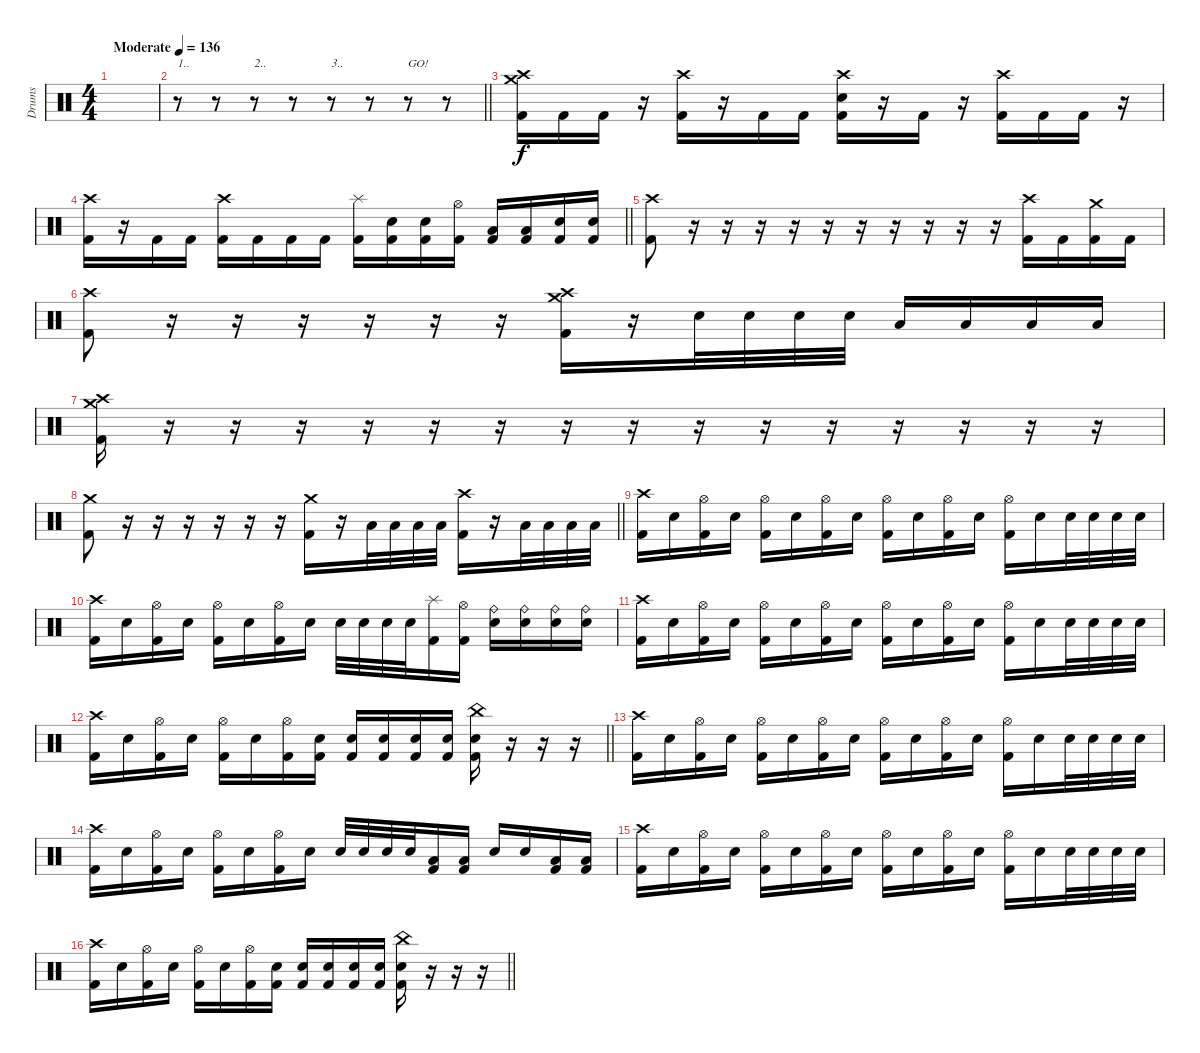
\track ("Drums" "Drums") {instrument percussion}
\staff {score}
\articulation defaults
\ts (4 4)
\tempo (136 "Moderate")
\clef neutral
\ks c
|
\barLineRight lightlight
r.8{txt "1.."} r.8 r.8{txt "2.."} r.8 r.8{txt "3.."} r.8 r.8{txt "GO!"} r.8 |
\section ("" "")
("Crash high (hit)" "Crash medium (hit)" "Kick (hit) 2").16 "Kick (hit) 2".16 "Kick (hit) 2".16 r.16 ("Crash high (hit)" "Kick (hit) 2").16 r.16 "Kick (hit) 2".16 "Kick (hit) 2".16 ("Crash high (hit)" "Electric Snare (hit)" "Kick (hit) 2").16 r.16 "Kick (hit) 2".16 r.16 ("Crash high (hit)" "Kick (hit) 2").16 "Kick (hit) 2".16 "Kick (hit) 2".16 r.16 |
\barLineRight lightlight
("Crash high (hit)" "Kick (hit) 2").16 r.16 "Kick (hit) 2".16 "Kick (hit) 2".16 ("Crash high (hit)" "Kick (hit) 2").16 "Kick (hit) 2".16 "Kick (hit) 2".16 "Kick (hit) 2".16 ("Splash (hit)" "Kick (hit) 2").16 ("Electric Snare (hit)" "Kick (hit) 2").16 ("Electric Snare (hit)" "Kick (hit) 2").16 ("Hi-Hat (open)" "Kick (hit) 2").16 ("Low Tom (hit)" "Kick (hit) 2").16 ("Low Floor Tom (hit)" "Kick (hit) 2").16 ("Electric Snare (hit)" "Kick (hit) 2").16 ("Electric Snare (hit)" "Kick (hit) 2").16 |
\section ("" "")
("Crash high (hit)" "Kick (hit) 2").8 r.16{volume 0} r.16 r.16 r.16 r.16 r.16 r.16 r.16 r.16 r.16 ("Crash high (hit)" "Kick (hit) 2").16{volume 12} "Kick (hit) 2".16 ("Crash medium (hit)" "Kick (hit) 2").16 "Kick (hit) 2".16 |
("Crash high (hit)" "Kick (hit) 2").8 r.16{volume 0} r.16 r.16 r.16 r.16 r.16 ("Crash high (hit)" "Crash medium (hit)" "Kick (hit) 2").16{volume 12} r.16 "Electric Snare (hit)".32 "Electric Snare (hit)".32 "Electric Snare (hit)".32 "Electric Snare (hit)".32 "Low Tom (hit)".16 "Low Tom (hit)".16 "Low Floor Tom (hit)".16 "Low Floor Tom (hit)".16 |
("Crash high (hit)" "Crash medium (hit)" "Kick (hit) 2").16 r.16 r.16 r.16 r.16 r.16 r.16 r.16 r.16 r.16 r.16 r.16 r.16 r.16 r.16 r.16 |
\barLineRight lightlight
("Crash medium (hit)" "Kick (hit) 2").8 r.16{volume 0} r.16 r.16 r.16 r.16 r.16 ("Crash medium (hit)" "Kick (hit) 2").16{volume 12} r.16 "Low Tom (hit)".32 "Low Tom (hit)".32 "Low Tom (hit)".32 "Low Tom (hit)".32 ("Crash high (hit)" "Kick (hit) 2").16 r.16 "Low Floor Tom (hit)".32 "Low Floor Tom (hit)".32 "Low Floor Tom (hit)".32 "Low Floor Tom (hit)".32 |
\section ("" "")
("Crash high (hit)" "Kick (hit) 2").16 "Electric Snare (hit)".16 ("Hi-Hat (open)" "Kick (hit) 2").16 "Electric Snare (hit)".16 ("Hi-Hat (open)" "Kick (hit) 2").16 "Electric Snare (hit)".16 ("Hi-Hat (open)" "Kick (hit) 2").16 "Electric Snare (hit)".16 ("Hi-Hat (open)" "Kick (hit) 2").16 "Electric Snare (hit)".16 ("Hi-Hat (open)" "Kick (hit) 2").16 "Electric Snare (hit)".16 ("Hi-Hat (open)" "Kick (hit) 2").16 "Electric Snare (hit)".16 "Electric Snare (hit)".32 "Electric Snare (hit)".32 "Electric Snare (hit)".32 "Electric Snare (hit)".32 |
("Crash high (hit)" "Kick (hit) 2").16 "Electric Snare (hit)".16 ("Hi-Hat (open)" "Kick (hit) 2").16 "Electric Snare (hit)".16 ("Hi-Hat (open)" "Kick (hit) 2").16 "Electric Snare (hit)".16 ("Hi-Hat (open)" "Kick (hit) 2").16 "Electric Snare (hit)".16 "Electric Snare (hit)".32 "Electric Snare (hit)".32 "Electric Snare (hit)".32 "Electric Snare (hit)".32 ("Splash (hit)" "Kick (hit) 2").16 ("Hi-Hat (open)" "Kick (hit) 2").16 ("Ride (bell)" "Electric Snare (hit)").16 ("Ride (bell)" "Electric Snare (hit)").16 ("Ride (bell)" "Electric Snare (hit)").16 ("Ride (bell)" "Electric Snare (hit)").16 |
("Crash high (hit)" "Kick (hit) 2").16 "Electric Snare (hit)".16 ("Hi-Hat (open)" "Kick (hit) 2").16 "Electric Snare (hit)".16 ("Hi-Hat (open)" "Kick (hit) 2").16 "Electric Snare (hit)".16 ("Hi-Hat (open)" "Kick (hit) 2").16 "Electric Snare (hit)".16 ("Hi-Hat (open)" "Kick (hit) 2").16 "Electric Snare (hit)".16 ("Hi-Hat (open)" "Kick (hit) 2").16 "Electric Snare (hit)".16 ("Hi-Hat (open)" "Kick (hit) 2").16 "Electric Snare (hit)".16 "Electric Snare (hit)".32 "Electric Snare (hit)".32 "Electric Snare (hit)".32 "Electric Snare (hit)".32 |
\barLineRight lightlight
("Crash high (hit)" "Kick (hit) 2").16 "Electric Snare (hit)".16 ("Hi-Hat (open)" "Kick (hit) 2").16 "Electric Snare (hit)".16 ("Hi-Hat (open)" "Kick (hit) 2").16 "Electric Snare (hit)".16 ("Hi-Hat (open)" "Kick (hit) 2").16 ("Electric Snare (hit)" "Kick (hit) 2").16 ("Electric Snare (hit)" "Kick (hit) 2").16 ("Electric Snare (hit)" "Kick (hit) 2").16 ("Electric Snare (hit)" "Kick (hit) 2").16 ("Electric Snare (hit)" "Kick (hit) 2").16 ("China (hit)" "Electric Snare (hit)" "Kick (hit) 2").16 r.16 r.16 r.16 |
("Crash high (hit)" "Kick (hit) 2").16 "Electric Snare (hit)".16 ("Hi-Hat (open)" "Kick (hit) 2").16 "Electric Snare (hit)".16 ("Hi-Hat (open)" "Kick (hit) 2").16 "Electric Snare (hit)".16 ("Hi-Hat (open)" "Kick (hit) 2").16 "Electric Snare (hit)".16 ("Hi-Hat (open)" "Kick (hit) 2").16 "Electric Snare (hit)".16 ("Hi-Hat (open)" "Kick (hit) 2").16 "Electric Snare (hit)".16 ("Hi-Hat (open)" "Kick (hit) 2").16 "Electric Snare (hit)".16 "Electric Snare (hit)".32 "Electric Snare (hit)".32 "Electric Snare (hit)".32 "Electric Snare (hit)".32 |
("Crash high (hit)" "Kick (hit) 2").16 "Electric Snare (hit)".16 ("Hi-Hat (open)" "Kick (hit) 2").16 "Electric Snare (hit)".16 ("Hi-Hat (open)" "Kick (hit) 2").16 "Electric Snare (hit)".16 ("Hi-Hat (open)" "Kick (hit) 2").16 "Electric Snare (hit)".16 "Electric Snare (hit)".32 "Electric Snare (hit)".32 "Electric Snare (hit)".32 "Electric Snare (hit)".32 ("Low Tom (hit)" "Kick (hit) 2").16 ("Low Tom (hit)" "Kick (hit) 2").16 "Electric Snare (hit)".16 "Electric Snare (hit)".16 ("Low Tom (hit)" "Kick (hit) 2").16 ("Low Tom (hit)" "Kick (hit) 2").16 |
("Crash high (hit)" "Kick (hit) 2").16 "Electric Snare (hit)".16 ("Hi-Hat (open)" "Kick (hit) 2").16 "Electric Snare (hit)".16 ("Hi-Hat (open)" "Kick (hit) 2").16 "Electric Snare (hit)".16 ("Hi-Hat (open)" "Kick (hit) 2").16 "Electric Snare (hit)".16 ("Hi-Hat (open)" "Kick (hit) 2").16 "Electric Snare (hit)".16 ("Hi-Hat (open)" "Kick (hit) 2").16 "Electric Snare (hit)".16 ("Hi-Hat (open)" "Kick (hit) 2").16 "Electric Snare (hit)".16 "Electric Snare (hit)".32 "Electric Snare (hit)".32 "Electric Snare (hit)".32 "Electric Snare (hit)".32 |
\barLineRight lightlight
("Crash high (hit)" "Kick (hit) 2").16 "Electric Snare (hit)".16 ("Hi-Hat (open)" "Kick (hit) 2").16 "Electric Snare (hit)".16 ("Hi-Hat (open)" "Kick (hit) 2").16 "Electric Snare (hit)".16 ("Hi-Hat (open)" "Kick (hit) 2").16 ("Electric Snare (hit)" "Kick (hit) 2").16 ("Electric Snare (hit)" "Kick (hit) 2").16 ("Electric Snare (hit)" "Kick (hit) 2").16 ("Electric Snare (hit)" "Kick (hit) 2").16 ("Electric Snare (hit)" "Kick (hit) 2").16 ("China (hit)" "Electric Snare (hit)" "Kick (hit) 2").16 r.16 r.16 r.16
